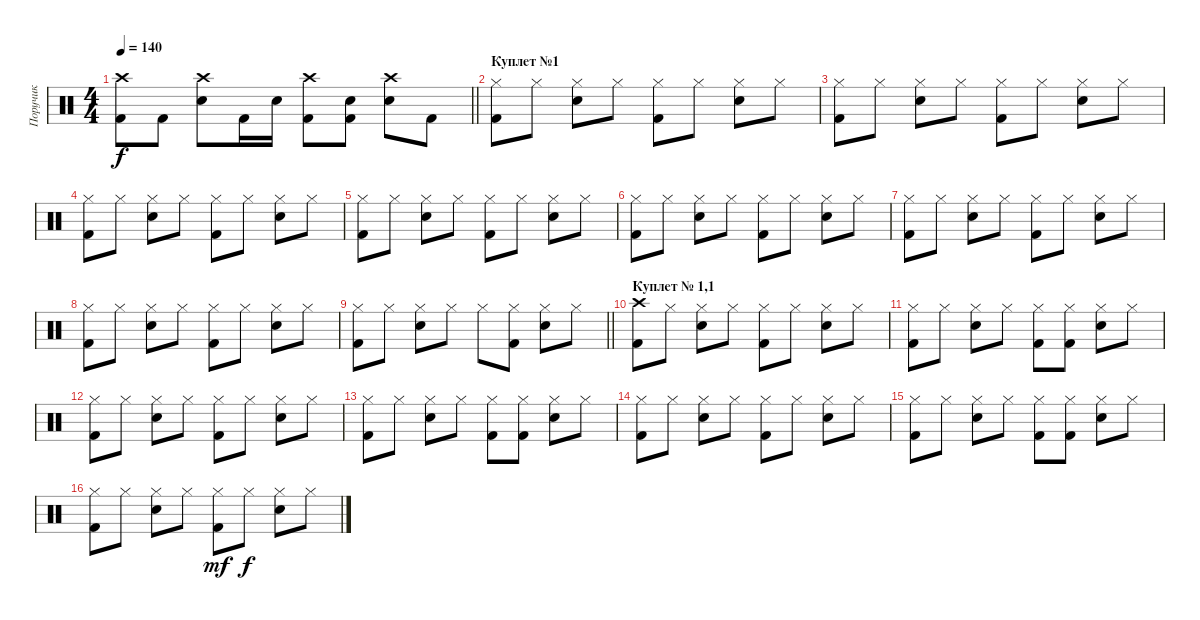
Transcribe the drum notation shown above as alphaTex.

\track ("Поручик" "Поручик") {instrument percussion}
\staff {score}
\articulation defaults
\ts (4 4)
\tempo 140
\clef neutral
\barLineRight lightlight
\ks c
("Crash high (hit)" "Kick (hit) 2").8{dy f} "Kick (hit) 2".8 ("Crash high (hit)" "Electric Snare (hit)").8 "Kick (hit) 2".16 "Electric Snare (hit)".16 ("Crash high (hit)" "Kick (hit) 2").8 ("Electric Snare (hit)" "Kick (hit) 2").8 ("Crash high (hit)" "Electric Snare (hit)").8 "Kick (hit) 2".8 |
\section ("" "Куплет №1")
("Hi-Hat (closed)" "Kick (hit) 2").8 "Hi-Hat (closed)".8 ("Hi-Hat (closed)" "Electric Snare (hit)").8 "Hi-Hat (closed)".8 ("Hi-Hat (closed)" "Kick (hit) 2").8 "Hi-Hat (closed)".8 ("Hi-Hat (closed)" "Electric Snare (hit)").8 "Hi-Hat (closed)".8 |
("Hi-Hat (closed)" "Kick (hit) 2").8 "Hi-Hat (closed)".8 ("Hi-Hat (closed)" "Electric Snare (hit)").8 "Hi-Hat (closed)".8 ("Hi-Hat (closed)" "Kick (hit) 2").8 "Hi-Hat (closed)".8 ("Hi-Hat (closed)" "Electric Snare (hit)").8 "Hi-Hat (closed)".8 |
("Hi-Hat (closed)" "Kick (hit) 2").8 "Hi-Hat (closed)".8 ("Hi-Hat (closed)" "Electric Snare (hit)").8 "Hi-Hat (closed)".8 ("Hi-Hat (closed)" "Kick (hit) 2").8 "Hi-Hat (closed)".8 ("Hi-Hat (closed)" "Electric Snare (hit)").8 "Hi-Hat (closed)".8 |
("Hi-Hat (closed)" "Kick (hit) 2").8 "Hi-Hat (closed)".8 ("Hi-Hat (closed)" "Electric Snare (hit)").8 "Hi-Hat (closed)".8 ("Hi-Hat (closed)" "Kick (hit) 2").8 "Hi-Hat (closed)".8 ("Hi-Hat (closed)" "Electric Snare (hit)").8 "Hi-Hat (closed)".8 |
("Hi-Hat (closed)" "Kick (hit) 2").8 "Hi-Hat (closed)".8 ("Hi-Hat (closed)" "Electric Snare (hit)").8 "Hi-Hat (closed)".8 ("Hi-Hat (closed)" "Kick (hit) 2").8 "Hi-Hat (closed)".8 ("Hi-Hat (closed)" "Electric Snare (hit)").8 "Hi-Hat (closed)".8 |
("Hi-Hat (closed)" "Kick (hit) 2").8 "Hi-Hat (closed)".8 ("Hi-Hat (closed)" "Electric Snare (hit)").8 "Hi-Hat (closed)".8 ("Hi-Hat (closed)" "Kick (hit) 2").8 "Hi-Hat (closed)".8 ("Hi-Hat (closed)" "Electric Snare (hit)").8 "Hi-Hat (closed)".8 |
("Hi-Hat (closed)" "Kick (hit) 2").8 "Hi-Hat (closed)".8 ("Hi-Hat (closed)" "Electric Snare (hit)").8 "Hi-Hat (closed)".8 ("Hi-Hat (closed)" "Kick (hit) 2").8 "Hi-Hat (closed)".8 ("Hi-Hat (closed)" "Electric Snare (hit)").8 "Hi-Hat (closed)".8 |
\barLineRight lightlight
("Hi-Hat (closed)" "Kick (hit) 2").8 "Hi-Hat (closed)".8 ("Hi-Hat (closed)" "Electric Snare (hit)").8 "Hi-Hat (closed)".8 "Hi-Hat (closed)".8 ("Hi-Hat (closed)" "Kick (hit) 2").8 ("Hi-Hat (closed)" "Electric Snare (hit)").8 "Hi-Hat (closed)".8 |
\section ("" "Куплет № 1,1")
("Crash high (hit)" "Kick (hit) 2").8 "Hi-Hat (closed)".8 ("Hi-Hat (closed)" "Electric Snare (hit)").8 "Hi-Hat (closed)".8 ("Hi-Hat (closed)" "Kick (hit) 2").8 "Hi-Hat (closed)".8 ("Hi-Hat (closed)" "Electric Snare (hit)").8 "Hi-Hat (closed)".8 |
("Hi-Hat (closed)" "Kick (hit) 2").8 "Hi-Hat (closed)".8 ("Hi-Hat (closed)" "Electric Snare (hit)").8 "Hi-Hat (closed)".8 ("Hi-Hat (closed)" "Kick (hit) 2").8 ("Hi-Hat (closed)" "Kick (hit) 2").8 ("Hi-Hat (closed)" "Electric Snare (hit)").8 "Hi-Hat (closed)".8 |
("Hi-Hat (closed)" "Kick (hit) 2").8 "Hi-Hat (closed)".8 ("Hi-Hat (closed)" "Electric Snare (hit)").8 "Hi-Hat (closed)".8 ("Hi-Hat (closed)" "Kick (hit) 2").8 "Hi-Hat (closed)".8 ("Hi-Hat (closed)" "Electric Snare (hit)").8 "Hi-Hat (closed)".8 |
("Hi-Hat (closed)" "Kick (hit) 2").8 "Hi-Hat (closed)".8 ("Hi-Hat (closed)" "Electric Snare (hit)").8 "Hi-Hat (closed)".8 ("Hi-Hat (closed)" "Kick (hit) 2").8 ("Hi-Hat (closed)" "Kick (hit) 2").8 ("Hi-Hat (closed)" "Electric Snare (hit)").8 "Hi-Hat (closed)".8 |
("Hi-Hat (closed)" "Kick (hit) 2").8 "Hi-Hat (closed)".8 ("Hi-Hat (closed)" "Electric Snare (hit)").8 "Hi-Hat (closed)".8 ("Hi-Hat (closed)" "Kick (hit) 2").8 "Hi-Hat (closed)".8 ("Hi-Hat (closed)" "Electric Snare (hit)").8 "Hi-Hat (closed)".8 |
("Hi-Hat (closed)" "Kick (hit) 2").8 "Hi-Hat (closed)".8 ("Hi-Hat (closed)" "Electric Snare (hit)").8 "Hi-Hat (closed)".8 ("Hi-Hat (closed)" "Kick (hit) 2").8 ("Hi-Hat (closed)" "Kick (hit) 2").8 ("Hi-Hat (closed)" "Electric Snare (hit)").8 "Hi-Hat (closed)".8 |
("Hi-Hat (closed)" "Kick (hit) 2").8 "Hi-Hat (closed)".8 ("Hi-Hat (closed)" "Electric Snare (hit)").8 "Hi-Hat (closed)".8 ("Hi-Hat (closed)" "Kick (hit) 2").8{dy mf} "Hi-Hat (closed)".8{dy f} ("Hi-Hat (closed)" "Electric Snare (hit)").8 "Hi-Hat (closed)".8
